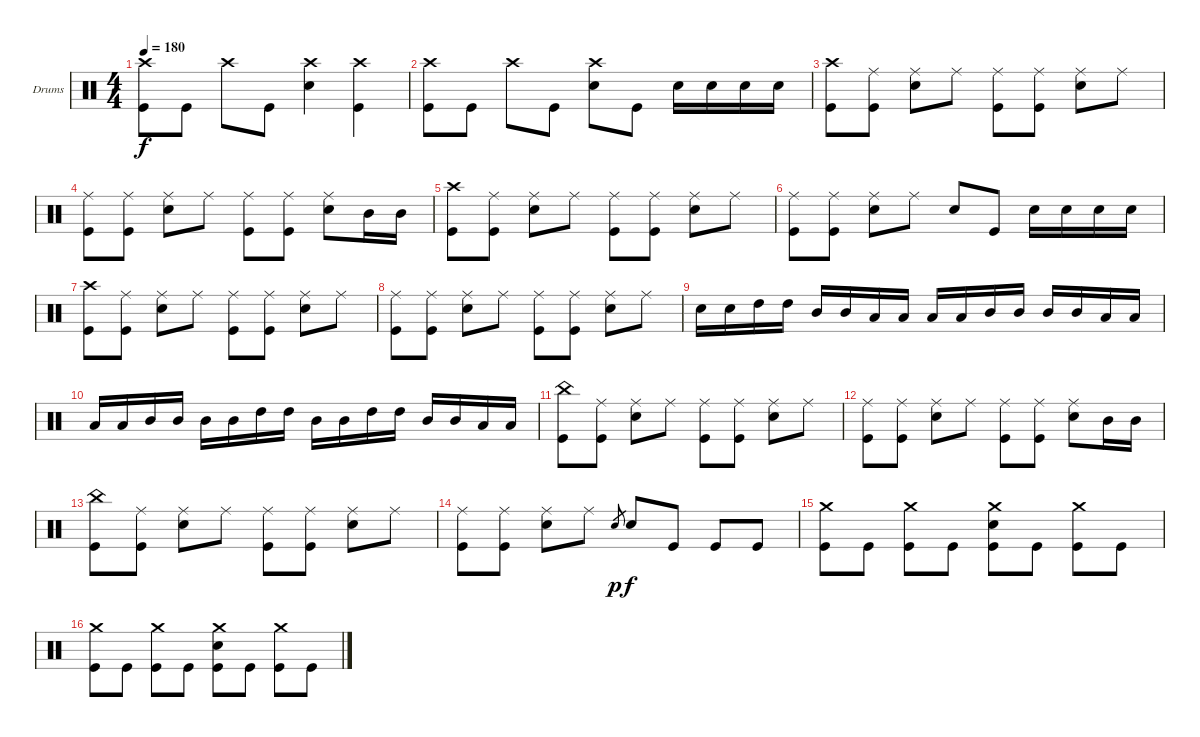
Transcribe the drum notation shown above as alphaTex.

\defaultSystemsLayout 4
\bracketExtendMode groupsimilarinstruments
\firstSystemTrackNameOrientation horizontal
\otherSystemsTrackNameOrientation horizontal
\track ("Барабаны" "Drums") {instrument percussion}
\staff {score}
\articulation defaults
\ts (4 4)
\tempo 180
\clef neutral
\scale
0.333333
\ks c
("Crash high (hit)" "Kick (hit)").8{dy f} "Kick (hit)".8 "Crash high (hit)".8 "Kick (hit)".8 ("Crash high (hit)" "Snare (hit) 2").4 ("Crash high (hit)" "Kick (hit)").4 |
\scale
0.333333 ("Crash high (hit)" "Kick (hit)").8 "Kick (hit)".8 "Crash high (hit)".8 "Kick (hit)".8 ("Crash high (hit)" "Snare (hit) 2").8 "Kick (hit)".8 "Snare (hit) 2".16 "Snare (hit) 2".16 "Snare (hit) 2".16 "Snare (hit) 2".16 |
\scale
0.333333 ("Crash high (hit)" "Kick (hit)").8 ("Ride (middle)" "Kick (hit)").8 ("Ride (middle)" "Snare (hit) 2").8 "Ride (middle)".8 ("Ride (middle)" "Kick (hit)").8 ("Ride (middle)" "Kick (hit)").8 ("Ride (middle)" "Snare (hit) 2").8 "Ride (middle)".8 |
\scale
0.333333 ("Ride (middle)" "Kick (hit)").8 ("Ride (middle)" "Kick (hit)").8 ("Ride (middle)" "Snare (hit) 2").8 "Ride (middle)".8 ("Ride (middle)" "Kick (hit)").8 ("Ride (middle)" "Kick (hit)").8 ("Ride (middle)" "Snare (hit) 2").8 "Mid Tom (hit)".16 "Mid Tom (hit)".16 |
\scale
0.333333 ("Crash high (hit)" "Kick (hit)").8 ("Ride (middle)" "Kick (hit)").8 ("Ride (middle)" "Snare (hit) 2").8 "Ride (middle)".8 ("Ride (middle)" "Kick (hit)").8 ("Ride (middle)" "Kick (hit)").8 ("Ride (middle)" "Snare (hit) 2").8 "Ride (middle)".8 |
\scale
0.333333 ("Ride (middle)" "Kick (hit)").8 ("Ride (middle)" "Kick (hit)").8 ("Ride (middle)" "Snare (hit) 2").8 "Ride (middle)".8 "Snare (hit) 2".8 "Kick (hit)".8 "Snare (hit) 2".16 "Snare (hit) 2".16 "Snare (hit) 2".16 "Snare (hit) 2".16 |
\scale
0.333333 ("Crash high (hit)" "Kick (hit)").8 ("Ride (middle)" "Kick (hit)").8 ("Ride (middle)" "Snare (hit) 2").8 "Ride (middle)".8 ("Ride (middle)" "Kick (hit)").8 ("Ride (middle)" "Kick (hit)").8 ("Ride (middle)" "Snare (hit) 2").8 "Ride (middle)".8 |
\scale
0.333333 ("Ride (middle)" "Kick (hit)").8 ("Ride (middle)" "Kick (hit)").8 ("Ride (middle)" "Snare (hit) 2").8 "Ride (middle)".8 ("Ride (middle)" "Kick (hit)").8 ("Ride (middle)" "Kick (hit)").8 ("Ride (middle)" "Snare (hit) 2").8 "Ride (middle)".8 |
\scale
0.333333 "Snare (hit) 2".16 "Snare (hit) 2".16 "High Tom (hit)".16 "High Tom (hit)".16 "Mid Tom (hit)".16 "Mid Tom (hit)".16 "Low Tom (hit)".16 "Low Tom (hit)".16 "Low Tom (hit)".16 "Low Tom (hit)".16 "Mid Tom (hit)".16 "Mid Tom (hit)".16 "Mid Tom (hit)".16 "Mid Tom (hit)".16 "Low Tom (hit)".16 "Low Tom (hit)".16 |
\scale
0.333333 "Low Tom (hit)".16 "Low Tom (hit)".16 "Mid Tom (hit)".16 "Mid Tom (hit)".16 "Mid Tom (hit)".16 "Mid Tom (hit)".16 "High Tom (hit)".16 "High Tom (hit)".16 "Mid Tom (hit)".16 "Mid Tom (hit)".16 "High Tom (hit)".16 "High Tom (hit)".16 "Mid Tom (hit)".16 "Mid Tom (hit)".16 "Low Tom (hit)".16 "Low Tom (hit)".16 |
\scale
0.333333 ("China (hit)" "Kick (hit)").8 ("Ride (middle)" "Kick (hit)").8 ("Ride (middle)" "Snare (hit) 2").8 "Ride (middle)".8 ("Ride (middle)" "Kick (hit)").8 ("Ride (middle)" "Kick (hit)").8 ("Ride (middle)" "Snare (hit) 2").8 "Ride (middle)".8 |
\scale
0.333333 ("Ride (middle)" "Kick (hit)").8 ("Ride (middle)" "Kick (hit)").8 ("Ride (middle)" "Snare (hit) 2").8 "Ride (middle)".8 ("Ride (middle)" "Kick (hit)").8 ("Ride (middle)" "Kick (hit)").8 ("Ride (middle)" "Snare (hit) 2").8 "Mid Tom (hit)".16 "Mid Tom (hit)".16 |
\scale
0.333333 ("China (hit)" "Kick (hit)").8 ("Ride (middle)" "Kick (hit)").8 ("Ride (middle)" "Snare (hit) 2").8 "Ride (middle)".8 ("Ride (middle)" "Kick (hit)").8 ("Ride (middle)" "Kick (hit)").8 ("Ride (middle)" "Snare (hit) 2").8 "Ride (middle)".8 |
\scale
0.333333 ("Ride (middle)" "Kick (hit)").8 ("Ride (middle)" "Kick (hit)").8 ("Ride (middle)" "Snare (hit) 2").8 "Ride (middle)".8 "Snare (hit) 2".8{gr dy p} "Snare (hit) 2".8{dy f} "Kick (hit)".8 "Kick (hit)".8 "Kick (hit)".8 |
\scale
0.333333 ("Crash medium (hit)" "Kick (hit)").8 "Kick (hit)".8 ("Crash medium (hit)" "Kick (hit)").8 "Kick (hit)".8 ("Crash medium (hit)" "Snare (hit) 2" "Kick (hit)").8 "Kick (hit)".8 ("Crash medium (hit)" "Kick (hit)").8 "Kick (hit)".8 |
\scale
0.333333 ("Crash medium (hit)" "Kick (hit)").8 "Kick (hit)".8 ("Crash medium (hit)" "Kick (hit)").8 "Kick (hit)".8 ("Crash medium (hit)" "Snare (hit) 2" "Kick (hit)").8 "Kick (hit)".8 ("Crash medium (hit)" "Kick (hit)").8 "Kick (hit)".8
